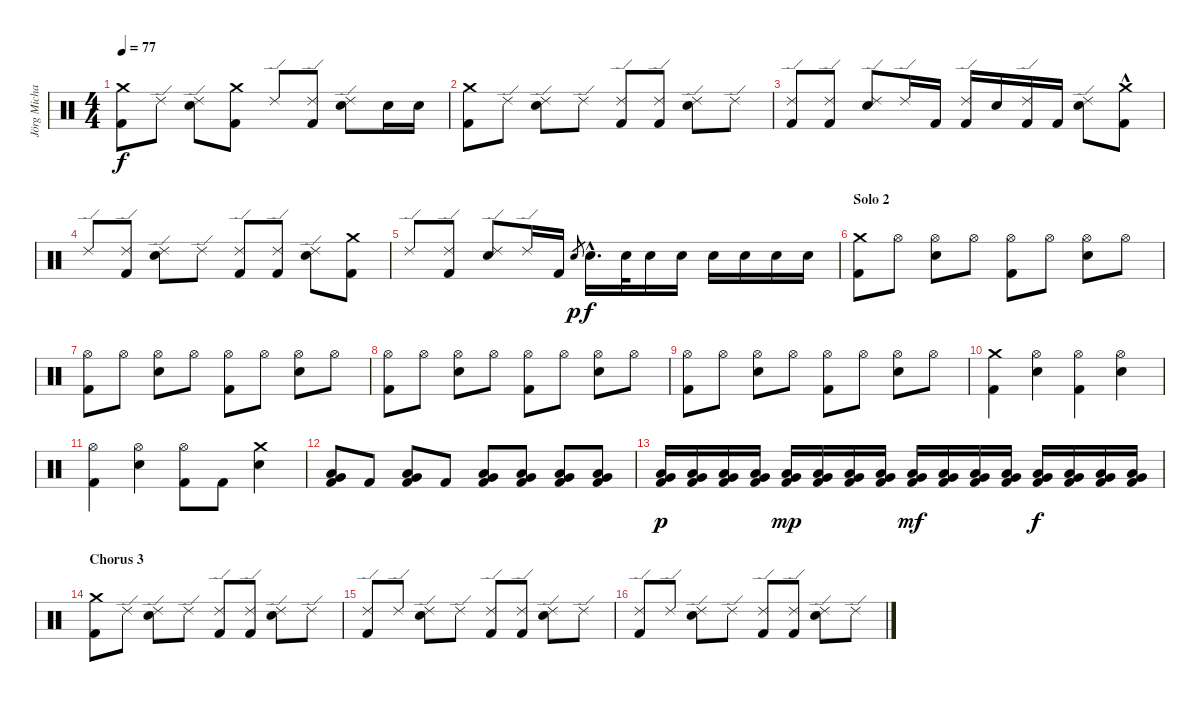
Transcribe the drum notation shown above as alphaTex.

\track ("Jörg Michael" "Jörg Micha") {instrument percussion}
\staff {score}
\articulation defaults
\ts (4 4)
\tempo 77
\clef neutral
\ks c
("Crash medium (hit)" "Kick (hit) 2").8{dy f} "Ride (edge) 2".8 ("Ride (edge) 2" "Electric Snare (hit)").8 ("Crash medium (hit)" "Kick (hit) 2").8 "Ride (edge) 2".8 ("Ride (edge) 2" "Kick (hit) 2").8 ("Ride (edge) 2" "Electric Snare (hit)").8 "Electric Snare (hit)".16 "Electric Snare (hit)".16 |
("Crash medium (hit)" "Kick (hit) 2").8 "Ride (edge) 2".8 ("Ride (edge) 2" "Electric Snare (hit)").8 "Ride (edge) 2".8 ("Ride (edge) 2" "Kick (hit) 2").8 ("Ride (edge) 2" "Kick (hit) 2").8 ("Ride (edge) 2" "Electric Snare (hit)").8 "Ride (edge) 2".8 |
("Ride (edge) 2" "Kick (hit) 2").8 ("Ride (edge) 2" "Kick (hit) 2").8 ("Ride (edge) 2" "Electric Snare (hit)").8 "Ride (edge) 2".16 "Kick (hit) 2".16 ("Ride (edge) 2" "Kick (hit) 2").16 "Electric Snare (hit)".16 ("Ride (edge) 2" "Kick (hit) 2").16 "Kick (hit) 2".16 ("Ride (edge) 2" "Electric Snare (hit)").8 ("Crash medium (hit)"{hac} "Kick (hit) 2").8 |
"Ride (edge) 2".8 ("Ride (edge) 2" "Kick (hit) 2").8 ("Ride (edge) 2" "Electric Snare (hit)").8 "Ride (edge) 2".8 ("Ride (edge) 2" "Kick (hit) 2").8 ("Ride (edge) 2" "Kick (hit) 2").8 ("Ride (edge) 2" "Electric Snare (hit)").8 ("Crash medium (hit)" "Kick (hit) 2").8 |
"Ride (edge) 2".8 ("Ride (edge) 2" "Kick (hit) 2").8 ("Ride (edge) 2" "Electric Snare (hit)").8 "Ride (edge) 2".16 "Kick (hit) 2".16 "Electric Snare (hit)".8{gr dy p} "Electric Snare (hit)"{hac}.16{d dy f} "Electric Snare (hit)".32 "Electric Snare (hit)".16 "Electric Snare (hit)".16 "Electric Snare (hit)".16 "Electric Snare (hit)".16 "Electric Snare (hit)".16 "Electric Snare (hit)".16 |
\section ("" "Solo 2")
("Crash medium (hit)" "Kick (hit) 2").8 "Hi-Hat (open)".8 ("Hi-Hat (open)" "Electric Snare (hit)").8 "Hi-Hat (open)".8 ("Hi-Hat (open)" "Kick (hit) 2").8 "Hi-Hat (open)".8 ("Hi-Hat (open)" "Electric Snare (hit)").8 "Hi-Hat (open)".8 |
("Hi-Hat (open)" "Kick (hit) 2").8 "Hi-Hat (open)".8 ("Hi-Hat (open)" "Electric Snare (hit)").8 "Hi-Hat (open)".8 ("Hi-Hat (open)" "Kick (hit) 2").8 "Hi-Hat (open)".8 ("Hi-Hat (open)" "Electric Snare (hit)").8 "Hi-Hat (open)".8 |
("Hi-Hat (open)" "Kick (hit) 2").8 "Hi-Hat (open)".8 ("Hi-Hat (open)" "Electric Snare (hit)").8 "Hi-Hat (open)".8 ("Hi-Hat (open)" "Kick (hit) 2").8 "Hi-Hat (open)".8 ("Hi-Hat (open)" "Electric Snare (hit)").8 "Hi-Hat (open)".8 |
("Hi-Hat (open)" "Kick (hit) 2").8 "Hi-Hat (open)".8 ("Hi-Hat (open)" "Electric Snare (hit)").8 "Hi-Hat (open)".8 ("Hi-Hat (open)" "Kick (hit) 2").8 "Hi-Hat (open)".8 ("Hi-Hat (open)" "Electric Snare (hit)").8 "Hi-Hat (open)".8 |
("Crash medium (hit)" "Kick (hit) 2").4 ("Hi-Hat (open)" "Electric Snare (hit)").4 ("Hi-Hat (open)" "Kick (hit) 2").4 ("Hi-Hat (open)" "Electric Snare (hit)").4 |
("Hi-Hat (open)" "Kick (hit) 2").4 ("Hi-Hat (open)" "Electric Snare (hit)").4 ("Hi-Hat (open)" "Kick (hit) 2").8 "Kick (hit) 2".8 ("Crash medium (hit)" "Electric Snare (hit)").4 |
("Very Low Tom (hit)" "Low Floor Tom (hit)" "Kick (hit) 2").8 "Kick (hit) 2".8 ("Very Low Tom (hit)" "Low Floor Tom (hit)" "Kick (hit) 2").8 "Kick (hit) 2".8 ("Very Low Tom (hit)" "Low Floor Tom (hit)" "Kick (hit) 2").8 ("Very Low Tom (hit)" "Low Floor Tom (hit)" "Kick (hit) 2").8 ("Very Low Tom (hit)" "Low Floor Tom (hit)" "Kick (hit) 2").8 ("Very Low Tom (hit)" "Low Floor Tom (hit)" "Kick (hit) 2").8 |
("Low Tom (hit)" "Very Low Tom (hit)" "Kick (hit) 2").16{dy p} ("Low Tom (hit)" "Very Low Tom (hit)" "Kick (hit) 2").16 ("Low Tom (hit)" "Very Low Tom (hit)" "Kick (hit) 2").16 ("Low Tom (hit)" "Very Low Tom (hit)" "Kick (hit) 2").16 ("Low Tom (hit)" "Very Low Tom (hit)" "Kick (hit) 2").16{dy mp} ("Low Tom (hit)" "Very Low Tom (hit)" "Kick (hit) 2").16 ("Low Tom (hit)" "Very Low Tom (hit)" "Kick (hit) 2").16 ("Low Tom (hit)" "Very Low Tom (hit)" "Kick (hit) 2").16 ("Low Tom (hit)" "Very Low Tom (hit)" "Kick (hit) 2").16{dy mf} ("Low Tom (hit)" "Very Low Tom (hit)" "Kick (hit) 2").16 ("Low Tom (hit)" "Very Low Tom (hit)" "Kick (hit) 2").16 ("Low Tom (hit)" "Very Low Tom (hit)" "Kick (hit) 2").16 ("Low Tom (hit)" "Very Low Tom (hit)" "Kick (hit) 2").16{dy f} ("Low Tom (hit)" "Very Low Tom (hit)" "Kick (hit) 2").16 ("Low Tom (hit)" "Very Low Tom (hit)" "Kick (hit) 2").16 ("Low Tom (hit)" "Very Low Tom (hit)" "Kick (hit) 2").16 |
\section ("" "Chorus 3")
("Crash medium (hit)" "Kick (hit) 2").8 "Ride (edge) 2".8 ("Ride (edge) 2" "Electric Snare (hit)").8 "Ride (edge) 2".8 ("Ride (edge) 2" "Kick (hit) 2").8 ("Ride (edge) 2" "Kick (hit) 2").8 ("Ride (edge) 2" "Electric Snare (hit)").8 "Ride (edge) 2".8 |
("Ride (edge) 2" "Kick (hit) 2").8 "Ride (edge) 2".8 ("Ride (edge) 2" "Electric Snare (hit)").8 "Ride (edge) 2".8 ("Ride (edge) 2" "Kick (hit) 2").8 ("Ride (edge) 2" "Kick (hit) 2").8 ("Ride (edge) 2" "Electric Snare (hit)").8 "Ride (edge) 2".8 |
("Ride (edge) 2" "Kick (hit) 2").8 "Ride (edge) 2".8 ("Ride (edge) 2" "Electric Snare (hit)").8 "Ride (edge) 2".8 ("Ride (edge) 2" "Kick (hit) 2").8 ("Ride (edge) 2" "Kick (hit) 2").8 ("Ride (edge) 2" "Electric Snare (hit)").8 "Ride (edge) 2".8
